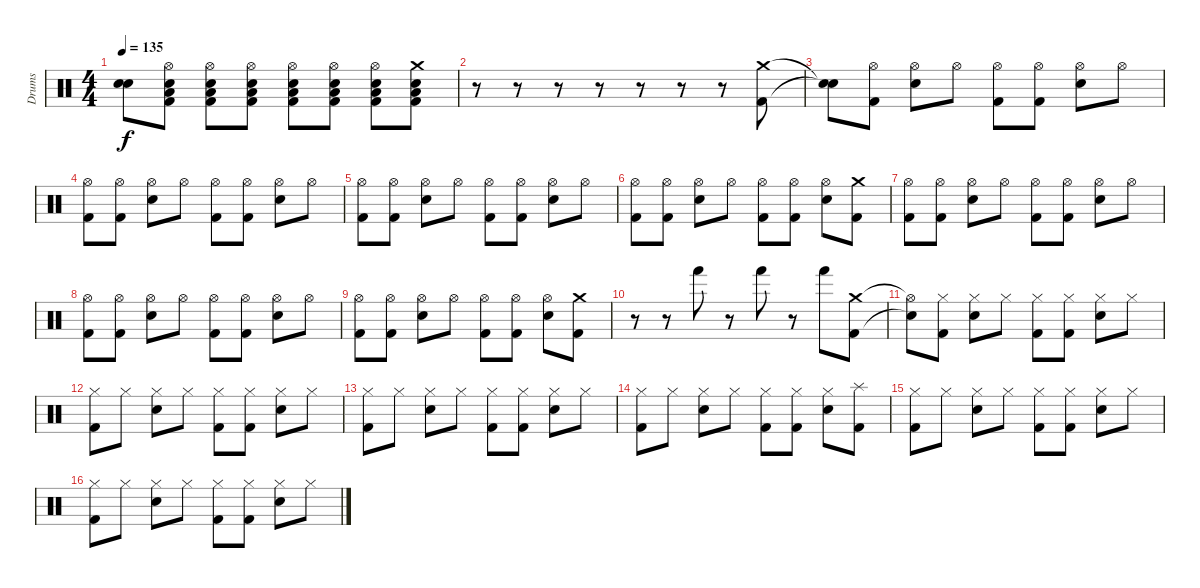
\track ("Drums" "Drums") {instrument percussion}
\staff {score}
\articulation defaults
\ts (4 4)
\tempo 135
\clef neutral
\ks c
("Snare (hit)"{t} "Snare (hit)"{t}).8{dy f} ("Hi-Hat (open)" "Low Floor Tom (hit)" "Electric Snare (hit)" "Kick (hit) 2").8 ("Hi-Hat (open)" "Low Floor Tom (hit)" "Electric Snare (hit)" "Kick (hit) 2").8 ("Hi-Hat (open)" "Low Floor Tom (hit)" "Electric Snare (hit)" "Kick (hit) 2").8 ("Hi-Hat (open)" "Low Floor Tom (hit)" "Electric Snare (hit)" "Kick (hit) 2").8 ("Hi-Hat (open)" "Low Floor Tom (hit)" "Electric Snare (hit)" "Kick (hit) 2").8 ("Hi-Hat (open)" "Low Floor Tom (hit)" "Electric Snare (hit)" "Kick (hit) 2").8 ("Crash medium (hit)" "Low Floor Tom (hit)" "Electric Snare (hit)" "Kick (hit) 2").8 |
r.8 r.8 r.8 r.8 r.8 r.8 r.8 ("Kick (hit) 2" "Crash medium (hit)").8 |
("Snare (hit)"{t} "Snare (hit)"{t}).8 ("Hi-Hat (open)" "Kick (hit) 2").8 ("Hi-Hat (open)" "Electric Snare (hit)").8 "Hi-Hat (open)".8 ("Hi-Hat (open)" "Kick (hit) 2").8 ("Hi-Hat (open)" "Kick (hit) 2").8 ("Hi-Hat (open)" "Electric Snare (hit)").8 "Hi-Hat (open)".8 |
("Hi-Hat (open)" "Kick (hit) 2").8 ("Hi-Hat (open)" "Kick (hit) 2").8 ("Hi-Hat (open)" "Electric Snare (hit)").8 "Hi-Hat (open)".8 ("Hi-Hat (open)" "Kick (hit) 2").8 ("Hi-Hat (open)" "Kick (hit) 2").8 ("Hi-Hat (open)" "Electric Snare (hit)").8 "Hi-Hat (open)".8 |
("Hi-Hat (open)" "Kick (hit) 2").8 ("Hi-Hat (open)" "Kick (hit) 2").8 ("Hi-Hat (open)" "Electric Snare (hit)").8 "Hi-Hat (open)".8 ("Hi-Hat (open)" "Kick (hit) 2").8 ("Hi-Hat (open)" "Kick (hit) 2").8 ("Hi-Hat (open)" "Electric Snare (hit)").8 "Hi-Hat (open)".8 |
("Hi-Hat (open)" "Kick (hit) 2").8 ("Hi-Hat (open)" "Kick (hit) 2").8 ("Hi-Hat (open)" "Electric Snare (hit)").8 "Hi-Hat (open)".8 ("Hi-Hat (open)" "Kick (hit) 2").8 ("Hi-Hat (open)" "Kick (hit) 2").8 ("Hi-Hat (open)" "Electric Snare (hit)").8 ("Crash medium (hit)" "Kick (hit) 2").8 |
("Hi-Hat (open)" "Kick (hit) 2").8 ("Hi-Hat (open)" "Kick (hit) 2").8 ("Hi-Hat (open)" "Electric Snare (hit)").8 "Hi-Hat (open)".8 ("Hi-Hat (open)" "Kick (hit) 2").8 ("Hi-Hat (open)" "Kick (hit) 2").8 ("Hi-Hat (open)" "Electric Snare (hit)").8 "Hi-Hat (open)".8 |
("Hi-Hat (open)" "Kick (hit) 2").8 ("Hi-Hat (open)" "Kick (hit) 2").8 ("Hi-Hat (open)" "Electric Snare (hit)").8 "Hi-Hat (open)".8 ("Hi-Hat (open)" "Kick (hit) 2").8 ("Hi-Hat (open)" "Kick (hit) 2").8 ("Hi-Hat (open)" "Electric Snare (hit)").8 "Hi-Hat (open)".8 |
("Hi-Hat (open)" "Kick (hit) 2").8 ("Hi-Hat (open)" "Kick (hit) 2").8 ("Hi-Hat (open)" "Electric Snare (hit)").8 "Hi-Hat (open)".8 ("Hi-Hat (open)" "Kick (hit) 2").8 ("Hi-Hat (open)" "Kick (hit) 2").8 ("Hi-Hat (open)" "Electric Snare (hit)").8 ("Crash medium (hit)" "Kick (hit) 2").8 |
r.8 r.8 "Hand (hit)".8 r.8 "Hand (hit)".8 r.8 "Hand (hit)".8 ("Crash medium (hit)" "Kick (hit) 2").8 |
("Hi-Hat (open)"{t} "Snare (hit)"{t}).8 ("Hi-Hat (closed)" "Kick (hit) 2").8 ("Hi-Hat (closed)" "Electric Snare (hit)").8 "Hi-Hat (closed)".8 ("Hi-Hat (closed)" "Kick (hit) 2").8 ("Hi-Hat (closed)" "Kick (hit) 2").8 ("Hi-Hat (closed)" "Electric Snare (hit)").8 "Hi-Hat (closed)".8 |
("Hi-Hat (closed)" "Kick (hit) 2").8 "Hi-Hat (closed)".8 ("Hi-Hat (closed)" "Electric Snare (hit)").8 "Hi-Hat (closed)".8 ("Hi-Hat (closed)" "Kick (hit) 2").8 ("Hi-Hat (closed)" "Kick (hit) 2").8 ("Hi-Hat (closed)" "Electric Snare (hit)").8 "Hi-Hat (closed)".8 |
("Hi-Hat (closed)" "Kick (hit) 2").8 "Hi-Hat (closed)".8 ("Hi-Hat (closed)" "Electric Snare (hit)").8 "Hi-Hat (closed)".8 ("Hi-Hat (closed)" "Kick (hit) 2").8 ("Hi-Hat (closed)" "Kick (hit) 2").8 ("Hi-Hat (closed)" "Electric Snare (hit)").8 "Hi-Hat (closed)".8 |
("Hi-Hat (closed)" "Kick (hit) 2").8 "Hi-Hat (closed)".8 ("Hi-Hat (closed)" "Electric Snare (hit)").8 "Hi-Hat (closed)".8 ("Hi-Hat (closed)" "Kick (hit) 2").8 ("Hi-Hat (closed)" "Kick (hit) 2").8 ("Hi-Hat (closed)" "Electric Snare (hit)").8 ("Splash (hit)" "Kick (hit) 2").8 |
("Hi-Hat (closed)" "Kick (hit) 2").8 "Hi-Hat (closed)".8 ("Hi-Hat (closed)" "Electric Snare (hit)").8 "Hi-Hat (closed)".8 ("Hi-Hat (closed)" "Kick (hit) 2").8 ("Hi-Hat (closed)" "Kick (hit) 2").8 ("Hi-Hat (closed)" "Electric Snare (hit)").8 "Hi-Hat (closed)".8 |
("Hi-Hat (closed)" "Kick (hit) 2").8 "Hi-Hat (closed)".8 ("Hi-Hat (closed)" "Electric Snare (hit)").8 "Hi-Hat (closed)".8 ("Hi-Hat (closed)" "Kick (hit) 2").8 ("Hi-Hat (closed)" "Kick (hit) 2").8 ("Hi-Hat (closed)" "Electric Snare (hit)").8 "Hi-Hat (closed)".8
